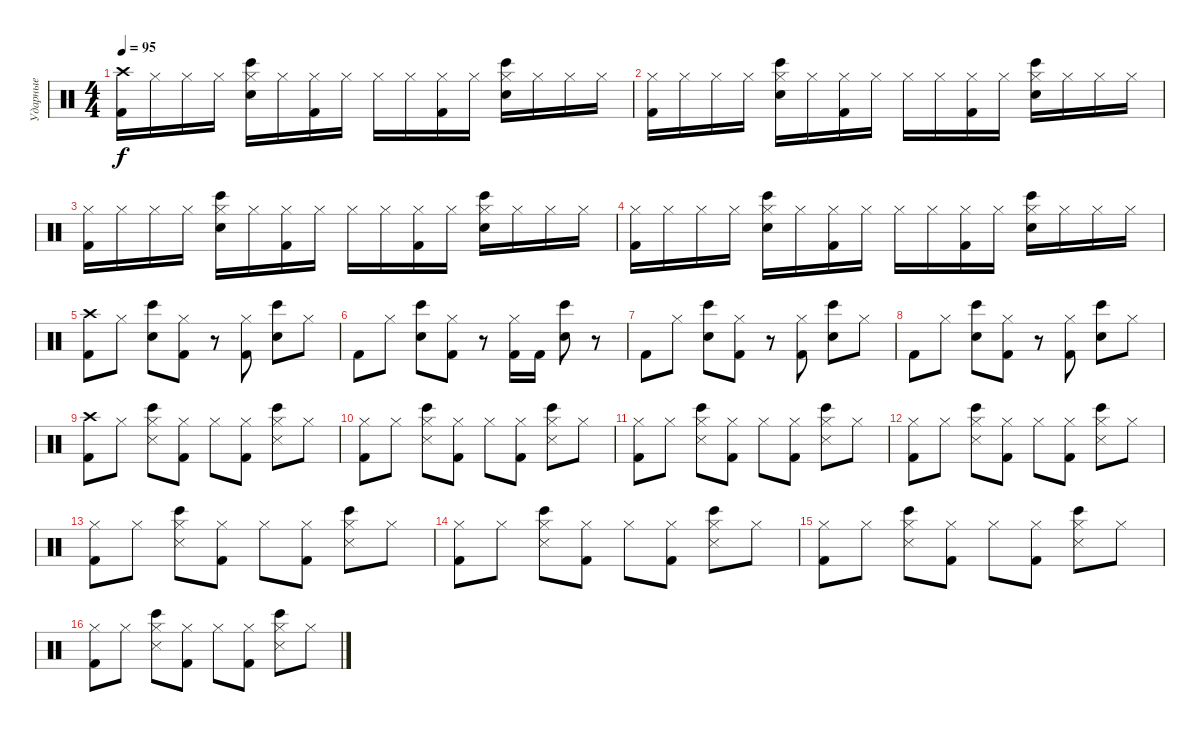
\track ("Ударные" "Ударные") {instrument percussion}
\staff {score}
\articulation defaults
\ts (4 4)
\tempo 95
\clef neutral
\ks c
("Crash high (hit)" "Kick (hit) 2").16{dy f} "Hi-Hat (closed)".16 "Hi-Hat (closed)".16 "Hi-Hat (closed)".16 ("Hi-Hat (closed)" "Electric Snare (hit)" "Bongo High (hit)").16 "Hi-Hat (closed)".16 ("Hi-Hat (closed)" "Kick (hit) 2").16 "Hi-Hat (closed)".16 "Hi-Hat (closed)".16 "Hi-Hat (closed)".16 ("Hi-Hat (closed)" "Kick (hit) 2").16 "Hi-Hat (closed)".16 ("Hi-Hat (closed)" "Electric Snare (hit)" "Bongo High (hit)").16 "Hi-Hat (closed)".16 "Hi-Hat (closed)".16 "Hi-Hat (closed)".16 |
("Hi-Hat (closed)" "Kick (hit) 2").16 "Hi-Hat (closed)".16 "Hi-Hat (closed)".16 "Hi-Hat (closed)".16 ("Hi-Hat (closed)" "Electric Snare (hit)" "Bongo High (hit)").16 "Hi-Hat (closed)".16 ("Hi-Hat (closed)" "Kick (hit) 2").16 "Hi-Hat (closed)".16 "Hi-Hat (closed)".16 "Hi-Hat (closed)".16 ("Hi-Hat (closed)" "Kick (hit) 2").16 "Hi-Hat (closed)".16 ("Hi-Hat (closed)" "Electric Snare (hit)" "Bongo High (hit)").16 "Hi-Hat (closed)".16 "Hi-Hat (closed)".16 "Hi-Hat (closed)".16 |
("Hi-Hat (closed)" "Kick (hit) 2").16 "Hi-Hat (closed)".16 "Hi-Hat (closed)".16 "Hi-Hat (closed)".16 ("Hi-Hat (closed)" "Electric Snare (hit)" "Bongo High (hit)").16 "Hi-Hat (closed)".16 ("Hi-Hat (closed)" "Kick (hit) 2").16 "Hi-Hat (closed)".16 "Hi-Hat (closed)".16 "Hi-Hat (closed)".16 ("Hi-Hat (closed)" "Kick (hit) 2").16 "Hi-Hat (closed)".16 ("Hi-Hat (closed)" "Electric Snare (hit)" "Bongo High (hit)").16 "Hi-Hat (closed)".16 "Hi-Hat (closed)".16 "Hi-Hat (closed)".16 |
("Hi-Hat (closed)" "Kick (hit) 2").16 "Hi-Hat (closed)".16 "Hi-Hat (closed)".16 "Hi-Hat (closed)".16 ("Hi-Hat (closed)" "Electric Snare (hit)" "Bongo High (hit)").16 "Hi-Hat (closed)".16 ("Hi-Hat (closed)" "Kick (hit) 2").16 "Hi-Hat (closed)".16 "Hi-Hat (closed)".16 "Hi-Hat (closed)".16 ("Hi-Hat (closed)" "Kick (hit) 2").16 "Hi-Hat (closed)".16 ("Hi-Hat (closed)" "Electric Snare (hit)" "Bongo High (hit)").16 "Hi-Hat (closed)".16 "Hi-Hat (closed)".16 "Hi-Hat (closed)".16 |
("Crash high (hit)" "Kick (hit) 2").8 "Hi-Hat (closed)".8 ("Electric Snare (hit)" "Bongo High (hit)").8 ("Hi-Hat (closed)" "Kick (hit) 2").8 r.8 ("Hi-Hat (closed)" "Kick (hit) 2").8 ("Electric Snare (hit)" "Bongo High (hit)").8 "Hi-Hat (closed)".8 |
"Kick (hit) 2".8 "Hi-Hat (closed)".8 ("Electric Snare (hit)" "Bongo High (hit)").8 ("Hi-Hat (closed)" "Kick (hit) 2").8 r.8 ("Hi-Hat (closed)" "Kick (hit) 2").16 "Kick (hit) 2".16 ("Electric Snare (hit)" "Bongo High (hit)").8 r.8 |
"Kick (hit) 2".8 "Hi-Hat (closed)".8 ("Electric Snare (hit)" "Bongo High (hit)").8 ("Hi-Hat (closed)" "Kick (hit) 2").8 r.8 ("Hi-Hat (closed)" "Kick (hit) 2").8 ("Electric Snare (hit)" "Bongo High (hit)").8 "Hi-Hat (closed)".8 |
"Kick (hit) 2".8 "Hi-Hat (closed)".8 ("Electric Snare (hit)" "Bongo High (hit)").8 ("Hi-Hat (closed)" "Kick (hit) 2").8 r.8 ("Hi-Hat (closed)" "Kick (hit) 2").8 ("Electric Snare (hit)" "Bongo High (hit)").8 "Hi-Hat (closed)".8 |
("Crash high (hit)" "Kick (hit) 2").8 "Hi-Hat (closed)".8 ("Hi-Hat (closed)" "Bongo High (hit)" "Snare (side stick) 3").8 ("Hi-Hat (closed)" "Kick (hit) 2").8 "Hi-Hat (closed)".8 ("Hi-Hat (closed)" "Kick (hit) 2").8 ("Hi-Hat (closed)" "Bongo High (hit)" "Snare (side stick) 3").8 "Hi-Hat (closed)".8 |
("Hi-Hat (closed)" "Kick (hit) 2").8 "Hi-Hat (closed)".8 ("Hi-Hat (closed)" "Bongo High (hit)" "Snare (side stick) 3").8 ("Hi-Hat (closed)" "Kick (hit) 2").8 "Hi-Hat (closed)".8 ("Hi-Hat (closed)" "Kick (hit) 2").8 ("Hi-Hat (closed)" "Bongo High (hit)" "Snare (side stick) 3").8 "Hi-Hat (closed)".8 |
("Hi-Hat (closed)" "Kick (hit) 2").8 "Hi-Hat (closed)".8 ("Hi-Hat (closed)" "Bongo High (hit)" "Snare (side stick) 3").8 ("Hi-Hat (closed)" "Kick (hit) 2").8 "Hi-Hat (closed)".8 ("Hi-Hat (closed)" "Kick (hit) 2").8 ("Hi-Hat (closed)" "Bongo High (hit)" "Snare (side stick) 3").8 "Hi-Hat (closed)".8 |
("Hi-Hat (closed)" "Kick (hit) 2").8 "Hi-Hat (closed)".8 ("Hi-Hat (closed)" "Bongo High (hit)" "Snare (side stick) 3").8 ("Hi-Hat (closed)" "Kick (hit) 2").8 "Hi-Hat (closed)".8 ("Hi-Hat (closed)" "Kick (hit) 2").8 ("Hi-Hat (closed)" "Bongo High (hit)" "Snare (side stick) 3").8 "Hi-Hat (closed)".8 |
("Hi-Hat (closed)" "Kick (hit) 2").8 "Hi-Hat (closed)".8 ("Hi-Hat (closed)" "Bongo High (hit)" "Snare (side stick) 3").8 ("Hi-Hat (closed)" "Kick (hit) 2").8 "Hi-Hat (closed)".8 ("Hi-Hat (closed)" "Kick (hit) 2").8 ("Hi-Hat (closed)" "Bongo High (hit)" "Snare (side stick) 3").8 "Hi-Hat (closed)".8 |
("Hi-Hat (closed)" "Kick (hit) 2").8 "Hi-Hat (closed)".8 ("Hi-Hat (closed)" "Bongo High (hit)" "Snare (side stick) 3").8 ("Hi-Hat (closed)" "Kick (hit) 2").8 "Hi-Hat (closed)".8 ("Hi-Hat (closed)" "Kick (hit) 2").8 ("Hi-Hat (closed)" "Bongo High (hit)" "Snare (side stick) 3").8 "Hi-Hat (closed)".8 |
("Hi-Hat (closed)" "Kick (hit) 2").8 "Hi-Hat (closed)".8 ("Hi-Hat (closed)" "Bongo High (hit)" "Snare (side stick) 3").8 ("Hi-Hat (closed)" "Kick (hit) 2").8 "Hi-Hat (closed)".8 ("Hi-Hat (closed)" "Kick (hit) 2").8 ("Hi-Hat (closed)" "Bongo High (hit)" "Snare (side stick) 3").8 "Hi-Hat (closed)".8 |
("Hi-Hat (closed)" "Kick (hit) 2").8 "Hi-Hat (closed)".8 ("Hi-Hat (closed)" "Bongo High (hit)" "Snare (side stick) 3").8 ("Hi-Hat (closed)" "Kick (hit) 2").8 "Hi-Hat (closed)".8 ("Hi-Hat (closed)" "Kick (hit) 2").8 ("Hi-Hat (closed)" "Bongo High (hit)" "Snare (side stick) 3").8 "Hi-Hat (closed)".8
